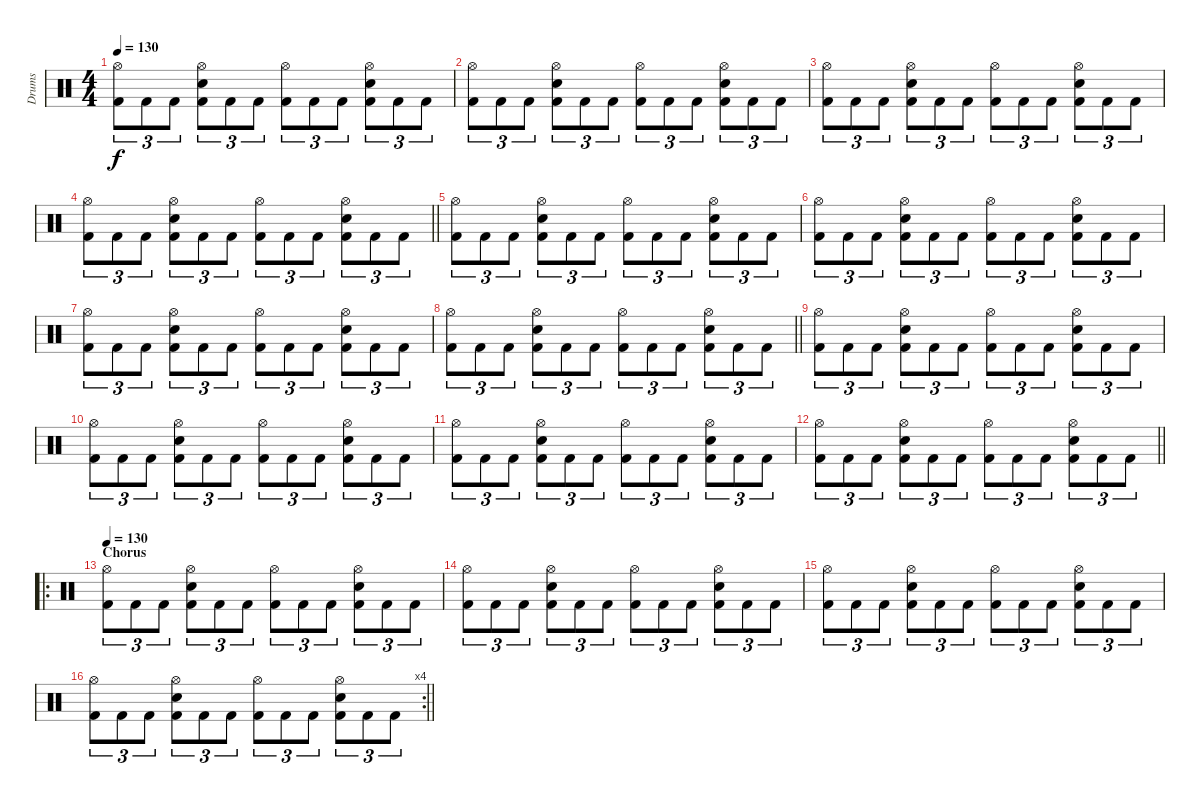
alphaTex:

\track ("Drums" "Drums") {instrument percussion}
\staff {score}
\articulation defaults
\ts (4 4)
\tempo 130
\clef neutral
\ks c
("Hi-Hat (open)" "Kick (hit) 2").8{tu (3 2) dy f} "Kick (hit) 2".8{tu (3 2)} "Kick (hit) 2".8{tu (3 2)} ("Hi-Hat (open)" "Snare (hit) 2" "Kick (hit) 2").8{tu (3 2)} "Kick (hit) 2".8{tu (3 2)} "Kick (hit) 2".8{tu (3 2)} ("Hi-Hat (open)" "Kick (hit) 2").8{tu (3 2)} "Kick (hit) 2".8{tu (3 2)} "Kick (hit) 2".8{tu (3 2)} ("Hi-Hat (open)" "Snare (hit) 2" "Kick (hit) 2").8{tu (3 2)} "Kick (hit) 2".8{tu (3 2)} "Kick (hit) 2".8{tu (3 2)} |
("Hi-Hat (open)" "Kick (hit) 2").8{tu (3 2)} "Kick (hit) 2".8{tu (3 2)} "Kick (hit) 2".8{tu (3 2)} ("Hi-Hat (open)" "Snare (hit) 2" "Kick (hit) 2").8{tu (3 2)} "Kick (hit) 2".8{tu (3 2)} "Kick (hit) 2".8{tu (3 2)} ("Hi-Hat (open)" "Kick (hit) 2").8{tu (3 2)} "Kick (hit) 2".8{tu (3 2)} "Kick (hit) 2".8{tu (3 2)} ("Hi-Hat (open)" "Snare (hit) 2" "Kick (hit) 2").8{tu (3 2)} "Kick (hit) 2".8{tu (3 2)} "Kick (hit) 2".8{tu (3 2)} |
("Hi-Hat (open)" "Kick (hit) 2").8{tu (3 2)} "Kick (hit) 2".8{tu (3 2)} "Kick (hit) 2".8{tu (3 2)} ("Hi-Hat (open)" "Snare (hit) 2" "Kick (hit) 2").8{tu (3 2)} "Kick (hit) 2".8{tu (3 2)} "Kick (hit) 2".8{tu (3 2)} ("Hi-Hat (open)" "Kick (hit) 2").8{tu (3 2)} "Kick (hit) 2".8{tu (3 2)} "Kick (hit) 2".8{tu (3 2)} ("Hi-Hat (open)" "Snare (hit) 2" "Kick (hit) 2").8{tu (3 2)} "Kick (hit) 2".8{tu (3 2)} "Kick (hit) 2".8{tu (3 2)} |
\barLineRight lightlight
("Hi-Hat (open)" "Kick (hit) 2").8{tu (3 2)} "Kick (hit) 2".8{tu (3 2)} "Kick (hit) 2".8{tu (3 2)} ("Hi-Hat (open)" "Snare (hit) 2" "Kick (hit) 2").8{tu (3 2)} "Kick (hit) 2".8{tu (3 2)} "Kick (hit) 2".8{tu (3 2)} ("Hi-Hat (open)" "Kick (hit) 2").8{tu (3 2)} "Kick (hit) 2".8{tu (3 2)} "Kick (hit) 2".8{tu (3 2)} ("Hi-Hat (open)" "Snare (hit) 2" "Kick (hit) 2").8{tu (3 2)} "Kick (hit) 2".8{tu (3 2)} "Kick (hit) 2".8{tu (3 2)} |
("Hi-Hat (open)" "Kick (hit) 2").8{tu (3 2)} "Kick (hit) 2".8{tu (3 2)} "Kick (hit) 2".8{tu (3 2)} ("Hi-Hat (open)" "Snare (hit) 2" "Kick (hit) 2").8{tu (3 2)} "Kick (hit) 2".8{tu (3 2)} "Kick (hit) 2".8{tu (3 2)} ("Hi-Hat (open)" "Kick (hit) 2").8{tu (3 2)} "Kick (hit) 2".8{tu (3 2)} "Kick (hit) 2".8{tu (3 2)} ("Hi-Hat (open)" "Snare (hit) 2" "Kick (hit) 2").8{tu (3 2)} "Kick (hit) 2".8{tu (3 2)} "Kick (hit) 2".8{tu (3 2)} |
("Hi-Hat (open)" "Kick (hit) 2").8{tu (3 2)} "Kick (hit) 2".8{tu (3 2)} "Kick (hit) 2".8{tu (3 2)} ("Hi-Hat (open)" "Snare (hit) 2" "Kick (hit) 2").8{tu (3 2)} "Kick (hit) 2".8{tu (3 2)} "Kick (hit) 2".8{tu (3 2)} ("Hi-Hat (open)" "Kick (hit) 2").8{tu (3 2)} "Kick (hit) 2".8{tu (3 2)} "Kick (hit) 2".8{tu (3 2)} ("Hi-Hat (open)" "Snare (hit) 2" "Kick (hit) 2").8{tu (3 2)} "Kick (hit) 2".8{tu (3 2)} "Kick (hit) 2".8{tu (3 2)} |
("Hi-Hat (open)" "Kick (hit) 2").8{tu (3 2)} "Kick (hit) 2".8{tu (3 2)} "Kick (hit) 2".8{tu (3 2)} ("Hi-Hat (open)" "Snare (hit) 2" "Kick (hit) 2").8{tu (3 2)} "Kick (hit) 2".8{tu (3 2)} "Kick (hit) 2".8{tu (3 2)} ("Hi-Hat (open)" "Kick (hit) 2").8{tu (3 2)} "Kick (hit) 2".8{tu (3 2)} "Kick (hit) 2".8{tu (3 2)} ("Hi-Hat (open)" "Snare (hit) 2" "Kick (hit) 2").8{tu (3 2)} "Kick (hit) 2".8{tu (3 2)} "Kick (hit) 2".8{tu (3 2)} |
\barLineRight lightlight
("Hi-Hat (open)" "Kick (hit) 2").8{tu (3 2)} "Kick (hit) 2".8{tu (3 2)} "Kick (hit) 2".8{tu (3 2)} ("Hi-Hat (open)" "Snare (hit) 2" "Kick (hit) 2").8{tu (3 2)} "Kick (hit) 2".8{tu (3 2)} "Kick (hit) 2".8{tu (3 2)} ("Hi-Hat (open)" "Kick (hit) 2").8{tu (3 2)} "Kick (hit) 2".8{tu (3 2)} "Kick (hit) 2".8{tu (3 2)} ("Hi-Hat (open)" "Snare (hit) 2" "Kick (hit) 2").8{tu (3 2)} "Kick (hit) 2".8{tu (3 2)} "Kick (hit) 2".8{tu (3 2)} |
("Hi-Hat (open)" "Kick (hit) 2").8{tu (3 2)} "Kick (hit) 2".8{tu (3 2)} "Kick (hit) 2".8{tu (3 2)} ("Hi-Hat (open)" "Snare (hit) 2" "Kick (hit) 2").8{tu (3 2)} "Kick (hit) 2".8{tu (3 2)} "Kick (hit) 2".8{tu (3 2)} ("Hi-Hat (open)" "Kick (hit) 2").8{tu (3 2)} "Kick (hit) 2".8{tu (3 2)} "Kick (hit) 2".8{tu (3 2)} ("Hi-Hat (open)" "Snare (hit) 2" "Kick (hit) 2").8{tu (3 2)} "Kick (hit) 2".8{tu (3 2)} "Kick (hit) 2".8{tu (3 2)} |
("Hi-Hat (open)" "Kick (hit) 2").8{tu (3 2)} "Kick (hit) 2".8{tu (3 2)} "Kick (hit) 2".8{tu (3 2)} ("Hi-Hat (open)" "Snare (hit) 2" "Kick (hit) 2").8{tu (3 2)} "Kick (hit) 2".8{tu (3 2)} "Kick (hit) 2".8{tu (3 2)} ("Hi-Hat (open)" "Kick (hit) 2").8{tu (3 2)} "Kick (hit) 2".8{tu (3 2)} "Kick (hit) 2".8{tu (3 2)} ("Hi-Hat (open)" "Snare (hit) 2" "Kick (hit) 2").8{tu (3 2)} "Kick (hit) 2".8{tu (3 2)} "Kick (hit) 2".8{tu (3 2)} |
("Hi-Hat (open)" "Kick (hit) 2").8{tu (3 2)} "Kick (hit) 2".8{tu (3 2)} "Kick (hit) 2".8{tu (3 2)} ("Hi-Hat (open)" "Snare (hit) 2" "Kick (hit) 2").8{tu (3 2)} "Kick (hit) 2".8{tu (3 2)} "Kick (hit) 2".8{tu (3 2)} ("Hi-Hat (open)" "Kick (hit) 2").8{tu (3 2)} "Kick (hit) 2".8{tu (3 2)} "Kick (hit) 2".8{tu (3 2)} ("Hi-Hat (open)" "Snare (hit) 2" "Kick (hit) 2").8{tu (3 2)} "Kick (hit) 2".8{tu (3 2)} "Kick (hit) 2".8{tu (3 2)} |
\barLineRight lightlight
("Hi-Hat (open)" "Kick (hit) 2").8{tu (3 2)} "Kick (hit) 2".8{tu (3 2)} "Kick (hit) 2".8{tu (3 2)} ("Hi-Hat (open)" "Snare (hit) 2" "Kick (hit) 2").8{tu (3 2)} "Kick (hit) 2".8{tu (3 2)} "Kick (hit) 2".8{tu (3 2)} ("Hi-Hat (open)" "Kick (hit) 2").8{tu (3 2)} "Kick (hit) 2".8{tu (3 2)} "Kick (hit) 2".8{tu (3 2)} ("Hi-Hat (open)" "Snare (hit) 2" "Kick (hit) 2").8{tu (3 2)} "Kick (hit) 2".8{tu (3 2)} "Kick (hit) 2".8{tu (3 2)} |
\ro
\section ("" "Chorus")
\tempo 130
("Hi-Hat (open)" "Kick (hit) 2").8{tu (3 2)} "Kick (hit) 2".8{tu (3 2)} "Kick (hit) 2".8{tu (3 2)} ("Hi-Hat (open)" "Snare (hit) 2" "Kick (hit) 2").8{tu (3 2)} "Kick (hit) 2".8{tu (3 2)} "Kick (hit) 2".8{tu (3 2)} ("Hi-Hat (open)" "Kick (hit) 2").8{tu (3 2)} "Kick (hit) 2".8{tu (3 2)} "Kick (hit) 2".8{tu (3 2)} ("Hi-Hat (open)" "Snare (hit) 2" "Kick (hit) 2").8{tu (3 2)} "Kick (hit) 2".8{tu (3 2)} "Kick (hit) 2".8{tu (3 2)} |
("Hi-Hat (open)" "Kick (hit) 2").8{tu (3 2)} "Kick (hit) 2".8{tu (3 2)} "Kick (hit) 2".8{tu (3 2)} ("Hi-Hat (open)" "Snare (hit) 2" "Kick (hit) 2").8{tu (3 2)} "Kick (hit) 2".8{tu (3 2)} "Kick (hit) 2".8{tu (3 2)} ("Hi-Hat (open)" "Kick (hit) 2").8{tu (3 2)} "Kick (hit) 2".8{tu (3 2)} "Kick (hit) 2".8{tu (3 2)} ("Hi-Hat (open)" "Snare (hit) 2" "Kick (hit) 2").8{tu (3 2)} "Kick (hit) 2".8{tu (3 2)} "Kick (hit) 2".8{tu (3 2)} |
("Hi-Hat (open)" "Kick (hit) 2").8{tu (3 2)} "Kick (hit) 2".8{tu (3 2)} "Kick (hit) 2".8{tu (3 2)} ("Hi-Hat (open)" "Snare (hit) 2" "Kick (hit) 2").8{tu (3 2)} "Kick (hit) 2".8{tu (3 2)} "Kick (hit) 2".8{tu (3 2)} ("Hi-Hat (open)" "Kick (hit) 2").8{tu (3 2)} "Kick (hit) 2".8{tu (3 2)} "Kick (hit) 2".8{tu (3 2)} ("Hi-Hat (open)" "Snare (hit) 2" "Kick (hit) 2").8{tu (3 2)} "Kick (hit) 2".8{tu (3 2)} "Kick (hit) 2".8{tu (3 2)} |
\rc 4
\barLineRight lightlight
("Hi-Hat (open)" "Kick (hit) 2").8{tu (3 2)} "Kick (hit) 2".8{tu (3 2)} "Kick (hit) 2".8{tu (3 2)} ("Hi-Hat (open)" "Snare (hit) 2" "Kick (hit) 2").8{tu (3 2)} "Kick (hit) 2".8{tu (3 2)} "Kick (hit) 2".8{tu (3 2)} ("Hi-Hat (open)" "Kick (hit) 2").8{tu (3 2)} "Kick (hit) 2".8{tu (3 2)} "Kick (hit) 2".8{tu (3 2)} ("Hi-Hat (open)" "Snare (hit) 2" "Kick (hit) 2").8{tu (3 2)} "Kick (hit) 2".8{tu (3 2)} "Kick (hit) 2".8{tu (3 2)}
